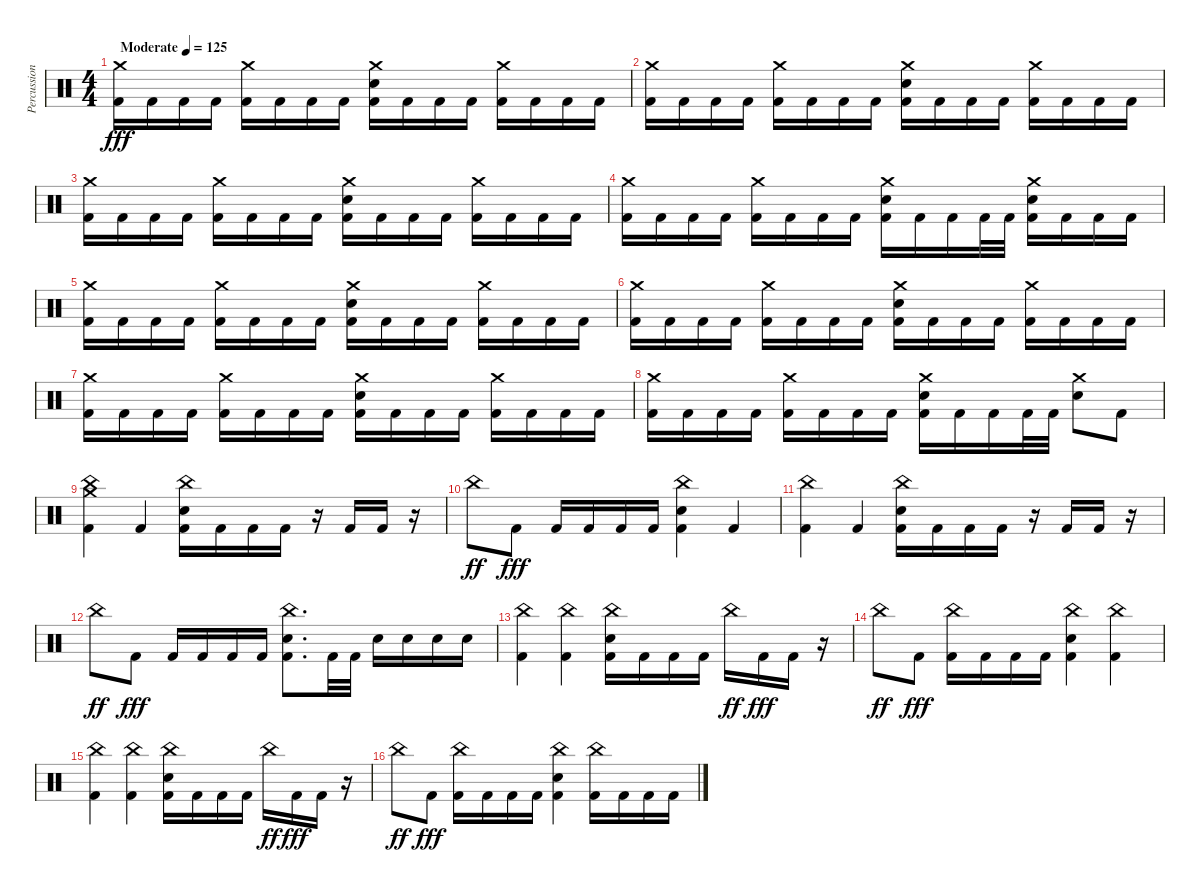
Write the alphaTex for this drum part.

\track ("Percussion" "Percussion") {instrument percussion}
\staff {score}
\articulation defaults
\ts (4 4)
\tempo (125 "Moderate")
\clef neutral
\ks c
("Crash medium (hit)" "Kick (hit) 2").16{dy fff} "Kick (hit) 2".16 "Kick (hit) 2".16 "Kick (hit) 2".16 ("Crash medium (hit)" "Kick (hit) 2").16 "Kick (hit) 2".16 "Kick (hit) 2".16 "Kick (hit) 2".16 ("Crash medium (hit)" "Snare (hit) 2" "Kick (hit) 2").16 "Kick (hit) 2".16 "Kick (hit) 2".16 "Kick (hit) 2".16 ("Crash medium (hit)" "Kick (hit) 2").16 "Kick (hit) 2".16 "Kick (hit) 2".16 "Kick (hit) 2".16 |
("Crash medium (hit)" "Kick (hit) 2").16 "Kick (hit) 2".16 "Kick (hit) 2".16 "Kick (hit) 2".16 ("Crash medium (hit)" "Kick (hit) 2").16 "Kick (hit) 2".16 "Kick (hit) 2".16 "Kick (hit) 2".16 ("Crash medium (hit)" "Snare (hit) 2" "Kick (hit) 2").16 "Kick (hit) 2".16 "Kick (hit) 2".16 "Kick (hit) 2".16 ("Crash medium (hit)" "Kick (hit) 2").16 "Kick (hit) 2".16 "Kick (hit) 2".16 "Kick (hit) 2".16 |
("Crash medium (hit)" "Kick (hit) 2").16 "Kick (hit) 2".16 "Kick (hit) 2".16 "Kick (hit) 2".16 ("Crash medium (hit)" "Kick (hit) 2").16 "Kick (hit) 2".16 "Kick (hit) 2".16 "Kick (hit) 2".16 ("Crash medium (hit)" "Snare (hit) 2" "Kick (hit) 2").16 "Kick (hit) 2".16 "Kick (hit) 2".16 "Kick (hit) 2".16 ("Crash medium (hit)" "Kick (hit) 2").16 "Kick (hit) 2".16 "Kick (hit) 2".16 "Kick (hit) 2".16 |
("Crash medium (hit)" "Kick (hit) 2").16 "Kick (hit) 2".16 "Kick (hit) 2".16 "Kick (hit) 2".16 ("Crash medium (hit)" "Kick (hit) 2").16 "Kick (hit) 2".16 "Kick (hit) 2".16 "Kick (hit) 2".16 ("Crash medium (hit)" "Snare (hit) 2" "Kick (hit) 2").16 "Kick (hit) 2".16 "Kick (hit) 2".16 "Kick (hit) 2".32 "Kick (hit) 2".32 ("Crash medium (hit)" "Snare (hit) 2" "Kick (hit) 2").16 "Kick (hit) 2".16 "Kick (hit) 2".16 "Kick (hit) 2".16 |
("Crash medium (hit)" "Kick (hit) 2").16 "Kick (hit) 2".16 "Kick (hit) 2".16 "Kick (hit) 2".16 ("Crash medium (hit)" "Kick (hit) 2").16 "Kick (hit) 2".16 "Kick (hit) 2".16 "Kick (hit) 2".16 ("Crash medium (hit)" "Snare (hit) 2" "Kick (hit) 2").16 "Kick (hit) 2".16 "Kick (hit) 2".16 "Kick (hit) 2".16 ("Crash medium (hit)" "Kick (hit) 2").16 "Kick (hit) 2".16 "Kick (hit) 2".16 "Kick (hit) 2".16 |
("Crash medium (hit)" "Kick (hit) 2").16 "Kick (hit) 2".16 "Kick (hit) 2".16 "Kick (hit) 2".16 ("Crash medium (hit)" "Kick (hit) 2").16 "Kick (hit) 2".16 "Kick (hit) 2".16 "Kick (hit) 2".16 ("Crash medium (hit)" "Snare (hit) 2" "Kick (hit) 2").16 "Kick (hit) 2".16 "Kick (hit) 2".16 "Kick (hit) 2".16 ("Crash medium (hit)" "Kick (hit) 2").16 "Kick (hit) 2".16 "Kick (hit) 2".16 "Kick (hit) 2".16 |
("Crash medium (hit)" "Kick (hit) 2").16 "Kick (hit) 2".16 "Kick (hit) 2".16 "Kick (hit) 2".16 ("Crash medium (hit)" "Kick (hit) 2").16 "Kick (hit) 2".16 "Kick (hit) 2".16 "Kick (hit) 2".16 ("Crash medium (hit)" "Snare (hit) 2" "Kick (hit) 2").16 "Kick (hit) 2".16 "Kick (hit) 2".16 "Kick (hit) 2".16 ("Crash medium (hit)" "Kick (hit) 2").16 "Kick (hit) 2".16 "Kick (hit) 2".16 "Kick (hit) 2".16 |
("Crash medium (hit)" "Kick (hit) 2").16 "Kick (hit) 2".16 "Kick (hit) 2".16 "Kick (hit) 2".16 ("Crash medium (hit)" "Kick (hit) 2").16 "Kick (hit) 2".16 "Kick (hit) 2".16 "Kick (hit) 2".16 ("Crash medium (hit)" "Snare (hit) 2" "Kick (hit) 2").16 "Kick (hit) 2".16 "Kick (hit) 2".16 "Kick (hit) 2".32 "Kick (hit) 2".32 ("Crash medium (hit)" "Snare (hit) 2").8 "Kick (hit) 2".8 |
("Crash medium (hit)" "China (hit)" "Kick (hit) 2").4 "Kick (hit) 2".4 ("China (hit)" "Snare (hit) 2" "Kick (hit) 2").16 "Kick (hit) 2".16 "Kick (hit) 2".16 "Kick (hit) 2".16 r.16 "Kick (hit) 2".16 "Kick (hit) 2".16 r.16 |
"China (hit)".8{dy ff} "Kick (hit) 2".8{dy fff} "Kick (hit) 2".16 "Kick (hit) 2".16 "Kick (hit) 2".16 "Kick (hit) 2".16 ("China (hit)" "Snare (hit) 2" "Kick (hit) 2").4 "Kick (hit) 2".4 |
("China (hit)" "Kick (hit) 2").4 "Kick (hit) 2".4 ("China (hit)" "Snare (hit) 2" "Kick (hit) 2").16 "Kick (hit) 2".16 "Kick (hit) 2".16 "Kick (hit) 2".16 r.16 "Kick (hit) 2".16 "Kick (hit) 2".16 r.16 |
"China (hit)".8{dy ff} "Kick (hit) 2".8{dy fff} "Kick (hit) 2".16 "Kick (hit) 2".16 "Kick (hit) 2".16 "Kick (hit) 2".16 ("China (hit)" "Snare (hit) 2" "Kick (hit) 2").8{d} "Kick (hit) 2".32 "Kick (hit) 2".32 "Snare (hit) 2".16 "Snare (hit) 2".16 "Snare (hit) 2".16 "Snare (hit) 2".16 |
("China (hit)" "Kick (hit) 2").4 ("China (hit)" "Kick (hit) 2").4 ("China (hit)" "Snare (hit) 2" "Kick (hit) 2").16 "Kick (hit) 2".16 "Kick (hit) 2".16 "Kick (hit) 2".16 "China (hit)".16{dy ff} "Kick (hit) 2".16{dy fff} "Kick (hit) 2".16 r.16 |
"China (hit)".8{dy ff} "Kick (hit) 2".8{dy fff} ("China (hit)" "Kick (hit) 2").16 "Kick (hit) 2".16 "Kick (hit) 2".16 "Kick (hit) 2".16 ("China (hit)" "Snare (hit) 2" "Kick (hit) 2").4 ("China (hit)" "Kick (hit) 2").4 |
("China (hit)" "Kick (hit) 2").4 ("China (hit)" "Kick (hit) 2").4 ("China (hit)" "Snare (hit) 2" "Kick (hit) 2").16 "Kick (hit) 2".16 "Kick (hit) 2".16 "Kick (hit) 2".16 "China (hit)".16{dy ff} "Kick (hit) 2".16{dy fff} "Kick (hit) 2".16 r.16 |
"China (hit)".8{dy ff} "Kick (hit) 2".8{dy fff} ("China (hit)" "Kick (hit) 2").16 "Kick (hit) 2".16 "Kick (hit) 2".16 "Kick (hit) 2".16 ("China (hit)" "Snare (hit) 2" "Kick (hit) 2").4 ("China (hit)" "Kick (hit) 2").16 "Kick (hit) 2".16 "Kick (hit) 2".16 "Kick (hit) 2".16
